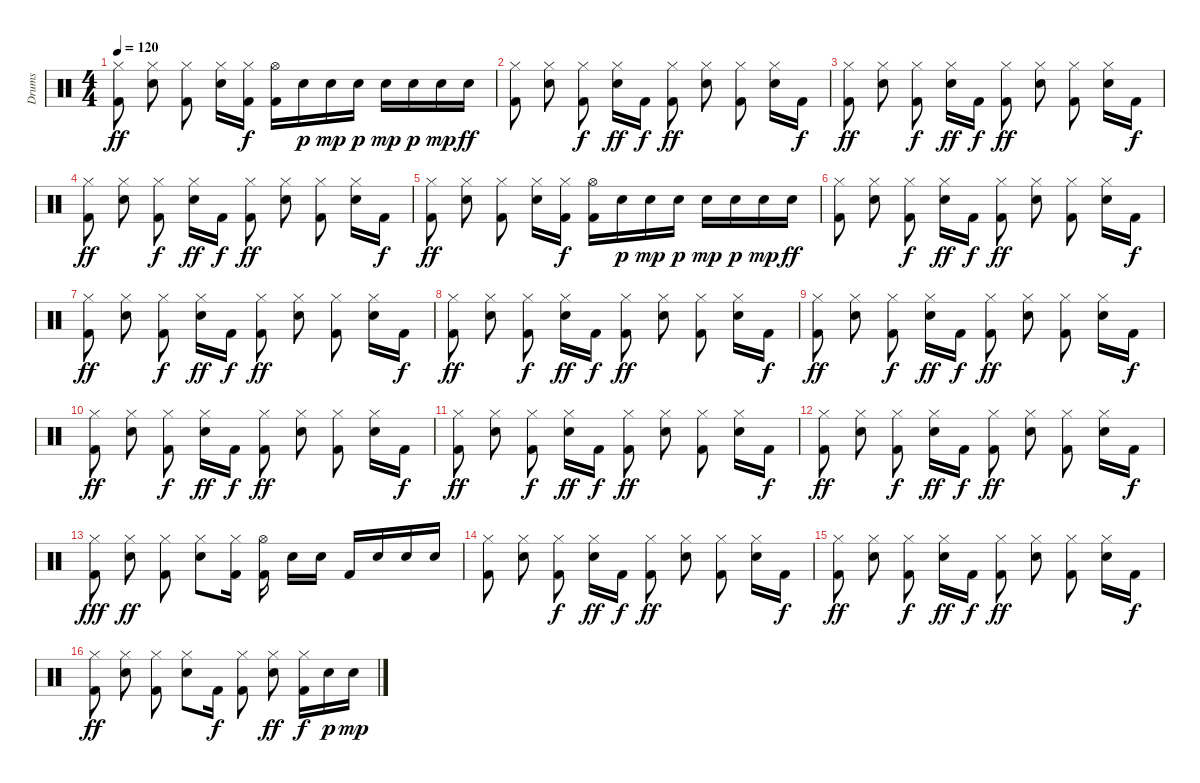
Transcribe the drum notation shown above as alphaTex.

\track ("Drums" "Drums") {instrument percussion}
\staff {score}
\articulation defaults
\ts (4 4)
\tempo 120
\clef neutral
\ks c
("Kick (hit) 2" "Hi-Hat (closed)").8{dy ff beam split} ("Snare (hit) 2" "Hi-Hat (closed)").8 ("Kick (hit) 2" "Hi-Hat (closed)").8{beam split} ("Snare (hit) 2" "Hi-Hat (closed)").16{beam merge} ("Kick (hit) 2" "Hi-Hat (closed)").16{dy f} ("Kick (hit) 2" "Hi-Hat (open)").16{beam merge} "Snare (hit) 2".16{dy p beam merge} "Snare (hit) 2".16{dy mp beam merge} "Snare (hit) 2".16{dy p beam split} "Snare (hit) 2".16{dy mp beam merge} "Snare (hit) 2".16{dy p beam merge} "Snare (hit) 2".16{dy mp} "Snare (hit) 2".16{dy ff} |
("Kick (hit) 2" "Hi-Hat (closed)").8{beam split} ("Snare (hit) 2" "Hi-Hat (closed)").8 ("Kick (hit) 2" "Hi-Hat (closed)").8{dy f beam split} ("Snare (hit) 2" "Hi-Hat (closed)").16{dy ff} "Kick (hit) 2".16{dy f} ("Kick (hit) 2" "Hi-Hat (closed)").8{dy ff beam split} ("Snare (hit) 2" "Hi-Hat (closed)").8 ("Kick (hit) 2" "Hi-Hat (closed)").8{beam split} ("Snare (hit) 2" "Hi-Hat (closed)").16 "Kick (hit) 2".16{dy f} |
("Kick (hit) 2" "Hi-Hat (closed)").8{dy ff beam split} ("Snare (hit) 2" "Hi-Hat (closed)").8 ("Kick (hit) 2" "Hi-Hat (closed)").8{dy f beam split} ("Snare (hit) 2" "Hi-Hat (closed)").16{dy ff} "Kick (hit) 2".16{dy f} ("Kick (hit) 2" "Hi-Hat (closed)").8{dy ff beam split} ("Snare (hit) 2" "Hi-Hat (closed)").8 ("Kick (hit) 2" "Hi-Hat (closed)").8{beam split} ("Snare (hit) 2" "Hi-Hat (closed)").16 "Kick (hit) 2".16{dy f} |
("Kick (hit) 2" "Hi-Hat (closed)").8{dy ff beam split} ("Snare (hit) 2" "Hi-Hat (closed)").8 ("Kick (hit) 2" "Hi-Hat (closed)").8{dy f beam split} ("Snare (hit) 2" "Hi-Hat (closed)").16{dy ff} "Kick (hit) 2".16{dy f} ("Kick (hit) 2" "Hi-Hat (closed)").8{dy ff beam split} ("Snare (hit) 2" "Hi-Hat (closed)").8 ("Kick (hit) 2" "Hi-Hat (closed)").8{beam split} ("Snare (hit) 2" "Hi-Hat (closed)").16 "Kick (hit) 2".16{dy f} |
("Kick (hit) 2" "Hi-Hat (closed)").8{dy ff beam split} ("Snare (hit) 2" "Hi-Hat (closed)").8 ("Kick (hit) 2" "Hi-Hat (closed)").8{beam split} ("Snare (hit) 2" "Hi-Hat (closed)").16{beam merge} ("Kick (hit) 2" "Hi-Hat (closed)").16{dy f} ("Kick (hit) 2" "Hi-Hat (open)").16{beam merge} "Snare (hit) 2".16{dy p beam merge} "Snare (hit) 2".16{dy mp beam merge} "Snare (hit) 2".16{dy p beam split} "Snare (hit) 2".16{dy mp beam merge} "Snare (hit) 2".16{dy p beam merge} "Snare (hit) 2".16{dy mp} "Snare (hit) 2".16{dy ff} |
("Kick (hit) 2" "Hi-Hat (closed)").8{beam split} ("Snare (hit) 2" "Hi-Hat (closed)").8 ("Kick (hit) 2" "Hi-Hat (closed)").8{dy f beam split} ("Snare (hit) 2" "Hi-Hat (closed)").16{dy ff} "Kick (hit) 2".16{dy f} ("Kick (hit) 2" "Hi-Hat (closed)").8{dy ff beam split} ("Snare (hit) 2" "Hi-Hat (closed)").8 ("Kick (hit) 2" "Hi-Hat (closed)").8{beam split} ("Snare (hit) 2" "Hi-Hat (closed)").16 "Kick (hit) 2".16{dy f} |
("Kick (hit) 2" "Hi-Hat (closed)").8{dy ff beam split} ("Snare (hit) 2" "Hi-Hat (closed)").8 ("Kick (hit) 2" "Hi-Hat (closed)").8{dy f beam split} ("Snare (hit) 2" "Hi-Hat (closed)").16{dy ff} "Kick (hit) 2".16{dy f} ("Kick (hit) 2" "Hi-Hat (closed)").8{dy ff beam split} ("Snare (hit) 2" "Hi-Hat (closed)").8 ("Kick (hit) 2" "Hi-Hat (closed)").8{beam split} ("Snare (hit) 2" "Hi-Hat (closed)").16 "Kick (hit) 2".16{dy f} |
("Kick (hit) 2" "Hi-Hat (closed)").8{dy ff beam split} ("Snare (hit) 2" "Hi-Hat (closed)").8 ("Kick (hit) 2" "Hi-Hat (closed)").8{dy f beam split} ("Snare (hit) 2" "Hi-Hat (closed)").16{dy ff} "Kick (hit) 2".16{dy f} ("Kick (hit) 2" "Hi-Hat (closed)").8{dy ff beam split} ("Snare (hit) 2" "Hi-Hat (closed)").8 ("Kick (hit) 2" "Hi-Hat (closed)").8{beam split} ("Snare (hit) 2" "Hi-Hat (closed)").16 "Kick (hit) 2".16{dy f} |
("Kick (hit) 2" "Hi-Hat (closed)").8{dy ff beam split} ("Snare (hit) 2" "Hi-Hat (closed)").8 ("Kick (hit) 2" "Hi-Hat (closed)").8{dy f beam split} ("Snare (hit) 2" "Hi-Hat (closed)").16{dy ff} "Kick (hit) 2".16{dy f} ("Kick (hit) 2" "Hi-Hat (closed)").8{dy ff beam split} ("Snare (hit) 2" "Hi-Hat (closed)").8 ("Kick (hit) 2" "Hi-Hat (closed)").8{beam split} ("Snare (hit) 2" "Hi-Hat (closed)").16 "Kick (hit) 2".16{dy f} |
("Kick (hit) 2" "Hi-Hat (closed)").8{dy ff beam split} ("Snare (hit) 2" "Hi-Hat (closed)").8 ("Kick (hit) 2" "Hi-Hat (closed)").8{dy f beam split} ("Snare (hit) 2" "Hi-Hat (closed)").16{dy ff} "Kick (hit) 2".16{dy f} ("Kick (hit) 2" "Hi-Hat (closed)").8{dy ff beam split} ("Snare (hit) 2" "Hi-Hat (closed)").8 ("Kick (hit) 2" "Hi-Hat (closed)").8{beam split} ("Snare (hit) 2" "Hi-Hat (closed)").16 "Kick (hit) 2".16{dy f} |
("Kick (hit) 2" "Hi-Hat (closed)").8{dy ff beam split} ("Snare (hit) 2" "Hi-Hat (closed)").8 ("Kick (hit) 2" "Hi-Hat (closed)").8{dy f beam split} ("Snare (hit) 2" "Hi-Hat (closed)").16{dy ff} "Kick (hit) 2".16{dy f} ("Kick (hit) 2" "Hi-Hat (closed)").8{dy ff beam split} ("Snare (hit) 2" "Hi-Hat (closed)").8 ("Kick (hit) 2" "Hi-Hat (closed)").8{beam split} ("Snare (hit) 2" "Hi-Hat (closed)").16 "Kick (hit) 2".16{dy f} |
("Kick (hit) 2" "Hi-Hat (closed)").8{dy ff beam split} ("Snare (hit) 2" "Hi-Hat (closed)").8 ("Kick (hit) 2" "Hi-Hat (closed)").8{dy f beam split} ("Snare (hit) 2" "Hi-Hat (closed)").16{dy ff} "Kick (hit) 2".16{dy f} ("Kick (hit) 2" "Hi-Hat (closed)").8{dy ff beam split} ("Snare (hit) 2" "Hi-Hat (closed)").8 ("Kick (hit) 2" "Hi-Hat (closed)").8{beam split} ("Snare (hit) 2" "Hi-Hat (closed)").16 "Kick (hit) 2".16{dy f} |
("Kick (hit) 2" "Hi-Hat (closed)").8{dy fff beam split} ("Snare (hit) 2" "Hi-Hat (closed)").8{dy ff} ("Kick (hit) 2" "Hi-Hat (closed)").8{beam split} ("Snare (hit) 2" "Hi-Hat (closed)").8{beam merge} ("Kick (hit) 2" "Hi-Hat (closed)").16{beam split} ("Kick (hit) 2" "Hi-Hat (open)").16{beam split} "Snare (hit) 2".16 "Snare (hit) 2".16 "Kick (hit) 2".16 "Snare (hit) 2".16 "Snare (hit) 2".16 "Snare (hit) 2".16 |
("Kick (hit) 2" "Hi-Hat (closed)").8{beam split} ("Snare (hit) 2" "Hi-Hat (closed)").8 ("Kick (hit) 2" "Hi-Hat (closed)").8{dy f beam split} ("Snare (hit) 2" "Hi-Hat (closed)").16{dy ff} "Kick (hit) 2".16{dy f} ("Kick (hit) 2" "Hi-Hat (closed)").8{dy ff beam split} ("Snare (hit) 2" "Hi-Hat (closed)").8 ("Kick (hit) 2" "Hi-Hat (closed)").8{beam split} ("Snare (hit) 2" "Hi-Hat (closed)").16 "Kick (hit) 2".16{dy f} |
("Kick (hit) 2" "Hi-Hat (closed)").8{dy ff beam split} ("Snare (hit) 2" "Hi-Hat (closed)").8 ("Kick (hit) 2" "Hi-Hat (closed)").8{dy f beam split} ("Snare (hit) 2" "Hi-Hat (closed)").16{dy ff} "Kick (hit) 2".16{dy f} ("Kick (hit) 2" "Hi-Hat (closed)").8{dy ff beam split} ("Snare (hit) 2" "Hi-Hat (closed)").8 ("Kick (hit) 2" "Hi-Hat (closed)").8{beam split} ("Snare (hit) 2" "Hi-Hat (closed)").16 "Kick (hit) 2".16{dy f} |
("Kick (hit) 2" "Hi-Hat (closed)").8{dy ff beam split} ("Snare (hit) 2" "Hi-Hat (closed)").8 ("Kick (hit) 2" "Hi-Hat (closed)").8{beam split} ("Snare (hit) 2" "Hi-Hat (closed)").8{beam merge} "Kick (hit) 2".16{dy f beam split} ("Kick (hit) 2" "Hi-Hat (closed)").8{beam split} ("Snare (hit) 2" "Hi-Hat (closed)").8{dy ff} ("Kick (hit) 2" "Hi-Hat (closed)").16{dy f} "Snare (hit) 2".16{dy p} "Snare (hit) 2".16{dy mp}
